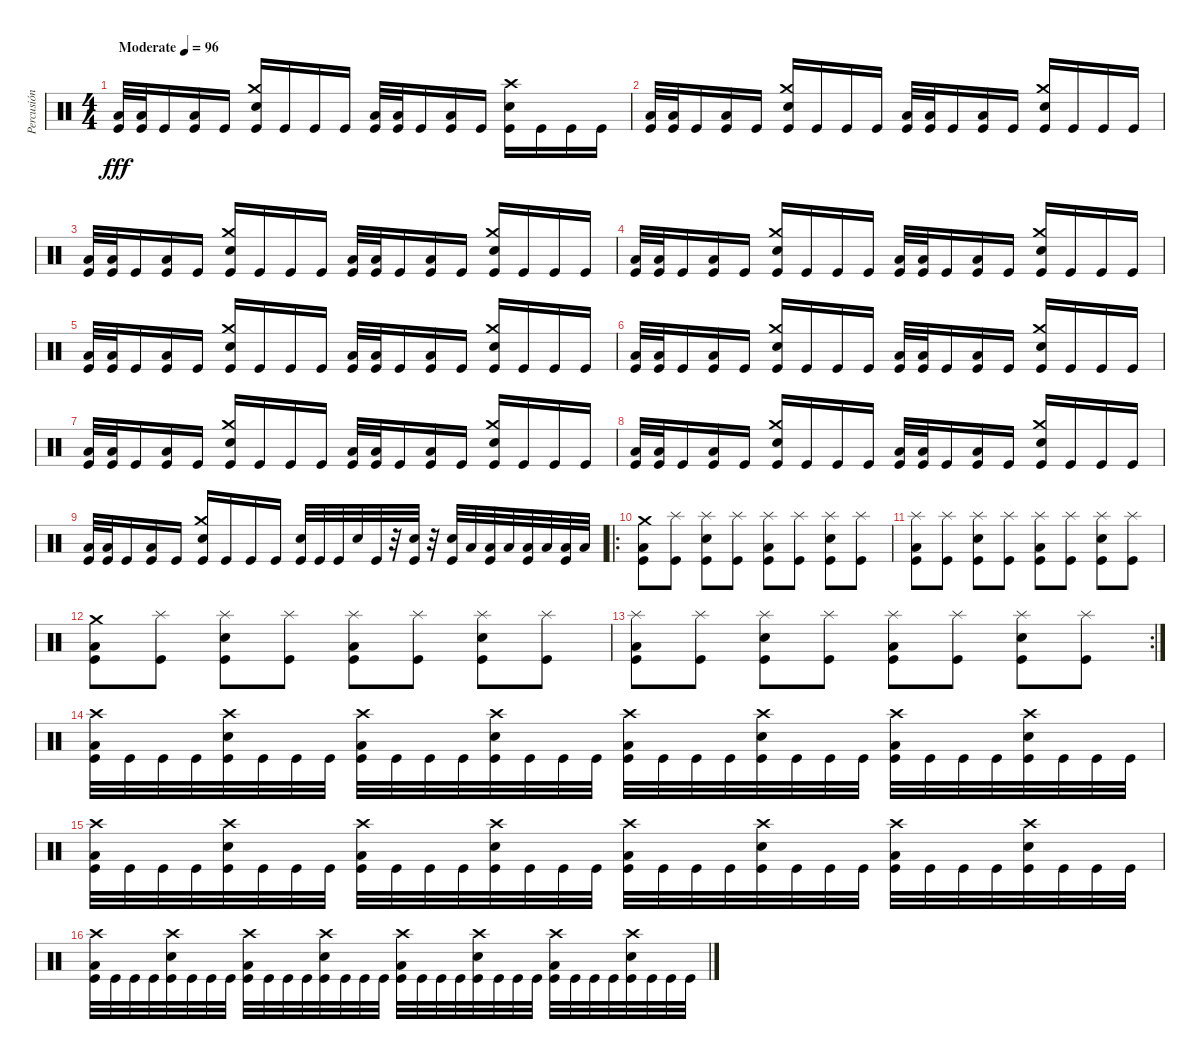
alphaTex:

\track ("Percusión" "Percusión") {instrument percussion}
\staff {score}
\articulation defaults
\ts (4 4)
\tempo (96 "Moderate")
\clef neutral
\ks c
("Low Floor Tom (hit)" "Kick (hit)").32{dy fff} ("Low Floor Tom (hit)" "Kick (hit)").32 "Kick (hit)".16 ("Low Floor Tom (hit)" "Kick (hit)").16 "Kick (hit)".16 ("Crash medium (hit)" "Snare (hit) 2" "Kick (hit)").16 "Kick (hit)".16 "Kick (hit)".16 "Kick (hit)".16 ("Low Floor Tom (hit)" "Kick (hit)").32 ("Low Floor Tom (hit)" "Kick (hit)").32 "Kick (hit)".16 ("Low Floor Tom (hit)" "Kick (hit)").16 "Kick (hit)".16 ("Crash high (hit)" "Snare (hit) 2" "Kick (hit)").16 "Kick (hit)".16 "Kick (hit)".16 "Kick (hit)".16 |
("Low Floor Tom (hit)" "Kick (hit)").32 ("Low Floor Tom (hit)" "Kick (hit)").32 "Kick (hit)".16 ("Low Floor Tom (hit)" "Kick (hit)").16 "Kick (hit)".16 ("Crash medium (hit)" "Snare (hit) 2" "Kick (hit)").16 "Kick (hit)".16 "Kick (hit)".16 "Kick (hit)".16 ("Low Floor Tom (hit)" "Kick (hit)").32 ("Low Floor Tom (hit)" "Kick (hit)").32 "Kick (hit)".16 ("Low Floor Tom (hit)" "Kick (hit)").16 "Kick (hit)".16 ("Crash medium (hit)" "Snare (hit) 2" "Kick (hit)").16 "Kick (hit)".16 "Kick (hit)".16 "Kick (hit)".16 |
("Low Floor Tom (hit)" "Kick (hit)").32 ("Low Floor Tom (hit)" "Kick (hit)").32 "Kick (hit)".16 ("Low Floor Tom (hit)" "Kick (hit)").16 "Kick (hit)".16 ("Crash medium (hit)" "Snare (hit) 2" "Kick (hit)").16 "Kick (hit)".16 "Kick (hit)".16 "Kick (hit)".16 ("Low Floor Tom (hit)" "Kick (hit)").32 ("Low Floor Tom (hit)" "Kick (hit)").32 "Kick (hit)".16 ("Low Floor Tom (hit)" "Kick (hit)").16 "Kick (hit)".16 ("Crash medium (hit)" "Snare (hit) 2" "Kick (hit)").16 "Kick (hit)".16 "Kick (hit)".16 "Kick (hit)".16 |
("Low Floor Tom (hit)" "Kick (hit)").32 ("Low Floor Tom (hit)" "Kick (hit)").32 "Kick (hit)".16 ("Low Floor Tom (hit)" "Kick (hit)").16 "Kick (hit)".16 ("Crash medium (hit)" "Snare (hit) 2" "Kick (hit)").16 "Kick (hit)".16 "Kick (hit)".16 "Kick (hit)".16 ("Low Floor Tom (hit)" "Kick (hit)").32 ("Low Floor Tom (hit)" "Kick (hit)").32 "Kick (hit)".16 ("Low Floor Tom (hit)" "Kick (hit)").16 "Kick (hit)".16 ("Crash medium (hit)" "Snare (hit) 2" "Kick (hit)").16 "Kick (hit)".16 "Kick (hit)".16 "Kick (hit)".16 |
("Low Floor Tom (hit)" "Kick (hit)").32 ("Low Floor Tom (hit)" "Kick (hit)").32 "Kick (hit)".16 ("Low Floor Tom (hit)" "Kick (hit)").16 "Kick (hit)".16 ("Crash medium (hit)" "Snare (hit) 2" "Kick (hit)").16 "Kick (hit)".16 "Kick (hit)".16 "Kick (hit)".16 ("Low Floor Tom (hit)" "Kick (hit)").32 ("Low Floor Tom (hit)" "Kick (hit)").32 "Kick (hit)".16 ("Low Floor Tom (hit)" "Kick (hit)").16 "Kick (hit)".16 ("Crash medium (hit)" "Snare (hit) 2" "Kick (hit)").16 "Kick (hit)".16 "Kick (hit)".16 "Kick (hit)".16 |
("Low Floor Tom (hit)" "Kick (hit)").32 ("Low Floor Tom (hit)" "Kick (hit)").32 "Kick (hit)".16 ("Low Floor Tom (hit)" "Kick (hit)").16 "Kick (hit)".16 ("Crash medium (hit)" "Snare (hit) 2" "Kick (hit)").16 "Kick (hit)".16 "Kick (hit)".16 "Kick (hit)".16 ("Low Floor Tom (hit)" "Kick (hit)").32 ("Low Floor Tom (hit)" "Kick (hit)").32 "Kick (hit)".16 ("Low Floor Tom (hit)" "Kick (hit)").16 "Kick (hit)".16 ("Crash medium (hit)" "Snare (hit) 2" "Kick (hit)").16 "Kick (hit)".16 "Kick (hit)".16 "Kick (hit)".16 |
("Low Floor Tom (hit)" "Kick (hit)").32 ("Low Floor Tom (hit)" "Kick (hit)").32 "Kick (hit)".16 ("Low Floor Tom (hit)" "Kick (hit)").16 "Kick (hit)".16 ("Crash medium (hit)" "Snare (hit) 2" "Kick (hit)").16 "Kick (hit)".16 "Kick (hit)".16 "Kick (hit)".16 ("Low Floor Tom (hit)" "Kick (hit)").32 ("Low Floor Tom (hit)" "Kick (hit)").32 "Kick (hit)".16 ("Low Floor Tom (hit)" "Kick (hit)").16 "Kick (hit)".16 ("Crash medium (hit)" "Snare (hit) 2" "Kick (hit)").16 "Kick (hit)".16 "Kick (hit)".16 "Kick (hit)".16 |
("Low Floor Tom (hit)" "Kick (hit)").32 ("Low Floor Tom (hit)" "Kick (hit)").32 "Kick (hit)".16 ("Low Floor Tom (hit)" "Kick (hit)").16 "Kick (hit)".16 ("Crash medium (hit)" "Snare (hit) 2" "Kick (hit)").16 "Kick (hit)".16 "Kick (hit)".16 "Kick (hit)".16 ("Low Floor Tom (hit)" "Kick (hit)").32 ("Low Floor Tom (hit)" "Kick (hit)").32 "Kick (hit)".16 ("Low Floor Tom (hit)" "Kick (hit)").16 "Kick (hit)".16 ("Crash medium (hit)" "Snare (hit) 2" "Kick (hit)").16 "Kick (hit)".16 "Kick (hit)".16 "Kick (hit)".16 |
("Low Floor Tom (hit)" "Kick (hit)").32 ("Low Floor Tom (hit)" "Kick (hit)").32 "Kick (hit)".16 ("Low Floor Tom (hit)" "Kick (hit)").16 "Kick (hit)".16 ("Crash medium (hit)" "Snare (hit) 2" "Kick (hit)").16 "Kick (hit)".16 "Kick (hit)".16 "Kick (hit)".16 ("Snare (hit) 2" "Kick (hit)").32 "Kick (hit)".32 "Kick (hit)".32 "Snare (hit) 2".32 "Kick (hit)".32 r.32 ("Snare (hit) 2" "Kick (hit)").32 r.32 ("Snare (hit) 2" "Kick (hit)").32 "Low Floor Tom (hit)".32 ("Low Floor Tom (hit)" "Kick (hit)").32 "Low Floor Tom (hit)".32 ("Low Floor Tom (hit)" "Kick (hit)").32 "Low Floor Tom (hit)".32 ("Low Floor Tom (hit)" "Kick (hit)").32 "Low Floor Tom (hit)".32 |
\ro
("Crash medium (hit)" "Low Floor Tom (hit)" "Kick (hit)").8 ("Splash (hit)" "Kick (hit)").8 ("Splash (hit)" "Snare (hit) 2" "Kick (hit)").8 ("Splash (hit)" "Kick (hit)").8 ("Splash (hit)" "Low Floor Tom (hit)" "Kick (hit)").8 ("Splash (hit)" "Kick (hit)").8 ("Splash (hit)" "Snare (hit) 2" "Kick (hit)").8 ("Splash (hit)" "Kick (hit)").8 |
("Splash (hit)" "Low Floor Tom (hit)" "Kick (hit)").8 ("Splash (hit)" "Kick (hit)").8 ("Splash (hit)" "Snare (hit) 2" "Kick (hit)").8 ("Splash (hit)" "Kick (hit)").8 ("Splash (hit)" "Low Floor Tom (hit)" "Kick (hit)").8 ("Splash (hit)" "Kick (hit)").8 ("Splash (hit)" "Snare (hit) 2" "Kick (hit)").8 ("Splash (hit)" "Kick (hit)").8 |
("Crash medium (hit)" "Low Floor Tom (hit)" "Kick (hit)").8 ("Splash (hit)" "Kick (hit)").8 ("Splash (hit)" "Snare (hit) 2" "Kick (hit)").8 ("Splash (hit)" "Kick (hit)").8 ("Splash (hit)" "Low Floor Tom (hit)" "Kick (hit)").8 ("Splash (hit)" "Kick (hit)").8 ("Splash (hit)" "Snare (hit) 2" "Kick (hit)").8 ("Splash (hit)" "Kick (hit)").8 |
\rc 2
("Splash (hit)" "Low Floor Tom (hit)" "Kick (hit)").8 ("Splash (hit)" "Kick (hit)").8 ("Splash (hit)" "Snare (hit) 2" "Kick (hit)").8 ("Splash (hit)" "Kick (hit)").8 ("Splash (hit)" "Low Floor Tom (hit)" "Kick (hit)").8 ("Splash (hit)" "Kick (hit)").8 ("Splash (hit)" "Snare (hit) 2" "Kick (hit)").8 ("Splash (hit)" "Kick (hit)").8 |
("Crash high (hit)" "Low Floor Tom (hit)" "Kick (hit)").32 "Kick (hit)".32 "Kick (hit)".32 "Kick (hit)".32 ("Crash high (hit)" "Snare (hit) 2" "Kick (hit)").32 "Kick (hit)".32 "Kick (hit)".32 "Kick (hit)".32 ("Crash high (hit)" "Low Floor Tom (hit)" "Kick (hit)").32 "Kick (hit)".32 "Kick (hit)".32 "Kick (hit)".32 ("Crash high (hit)" "Snare (hit) 2" "Kick (hit)").32 "Kick (hit)".32 "Kick (hit)".32 "Kick (hit)".32 ("Crash high (hit)" "Low Floor Tom (hit)" "Kick (hit)").32 "Kick (hit)".32 "Kick (hit)".32 "Kick (hit)".32 ("Crash high (hit)" "Snare (hit) 2" "Kick (hit)").32 "Kick (hit)".32 "Kick (hit)".32 "Kick (hit)".32 ("Crash high (hit)" "Low Floor Tom (hit)" "Kick (hit)").32 "Kick (hit)".32 "Kick (hit)".32 "Kick (hit)".32 ("Crash high (hit)" "Snare (hit) 2" "Kick (hit)").32 "Kick (hit)".32 "Kick (hit)".32 "Kick (hit)".32 |
("Crash high (hit)" "Low Floor Tom (hit)" "Kick (hit)").32 "Kick (hit)".32 "Kick (hit)".32 "Kick (hit)".32 ("Crash high (hit)" "Snare (hit) 2" "Kick (hit)").32 "Kick (hit)".32 "Kick (hit)".32 "Kick (hit)".32 ("Crash high (hit)" "Low Floor Tom (hit)" "Kick (hit)").32 "Kick (hit)".32 "Kick (hit)".32 "Kick (hit)".32 ("Crash high (hit)" "Snare (hit) 2" "Kick (hit)").32 "Kick (hit)".32 "Kick (hit)".32 "Kick (hit)".32 ("Crash high (hit)" "Low Floor Tom (hit)" "Kick (hit)").32 "Kick (hit)".32 "Kick (hit)".32 "Kick (hit)".32 ("Crash high (hit)" "Snare (hit) 2" "Kick (hit)").32 "Kick (hit)".32 "Kick (hit)".32 "Kick (hit)".32 ("Crash high (hit)" "Low Floor Tom (hit)" "Kick (hit)").32 "Kick (hit)".32 "Kick (hit)".32 "Kick (hit)".32 ("Crash high (hit)" "Snare (hit) 2" "Kick (hit)").32 "Kick (hit)".32 "Kick (hit)".32 "Kick (hit)".32 |
("Crash high (hit)" "Low Floor Tom (hit)" "Kick (hit)").32 "Kick (hit)".32 "Kick (hit)".32 "Kick (hit)".32 ("Crash high (hit)" "Snare (hit) 2" "Kick (hit)").32 "Kick (hit)".32 "Kick (hit)".32 "Kick (hit)".32 ("Crash high (hit)" "Low Floor Tom (hit)" "Kick (hit)").32 "Kick (hit)".32 "Kick (hit)".32 "Kick (hit)".32 ("Crash high (hit)" "Snare (hit) 2" "Kick (hit)").32 "Kick (hit)".32 "Kick (hit)".32 "Kick (hit)".32 ("Crash high (hit)" "Low Floor Tom (hit)" "Kick (hit)").32 "Kick (hit)".32 "Kick (hit)".32 "Kick (hit)".32 ("Crash high (hit)" "Snare (hit) 2" "Kick (hit)").32 "Kick (hit)".32 "Kick (hit)".32 "Kick (hit)".32 ("Crash high (hit)" "Low Floor Tom (hit)" "Kick (hit)").32 "Kick (hit)".32 "Kick (hit)".32 "Kick (hit)".32 ("Crash high (hit)" "Snare (hit) 2" "Kick (hit)").32 "Kick (hit)".32 "Kick (hit)".32 "Kick (hit)".32
